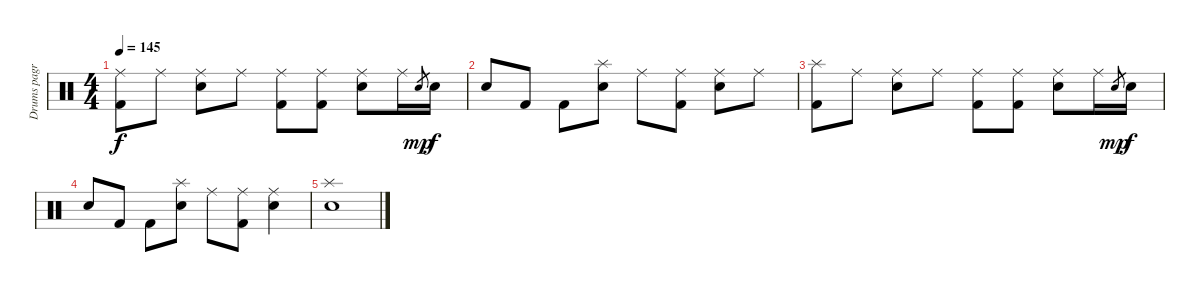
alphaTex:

\track ("Drums pagr" "Drums pagr") {instrument percussion}
\staff {score}
\articulation defaults
\ts (4 4)
\tempo 145
\clef neutral
\ks c
("Ride (middle)" "Kick (hit) 2").8{dy f} "Ride (middle)".8 ("Ride (middle)" "Snare (hit) 2").8 "Ride (middle)".8 ("Ride (middle)" "Kick (hit) 2").8 ("Ride (middle)" "Kick (hit) 2").8 ("Ride (middle)" "Snare (hit) 2").8 "Ride (middle)".16 "Snare (hit) 2".8{gr dy mp} "Snare (hit) 2".16{dy f} |
"Snare (hit) 2".8 "Kick (hit) 2".8 "Kick (hit) 2".8 ("Splash (hit)" "Snare (hit) 2").8 "Ride (middle)".8 ("Ride (middle)" "Kick (hit) 2").8 ("Ride (middle)" "Snare (hit) 2").8 "Ride (middle)".8 |
("Splash (hit)" "Kick (hit) 2").8 "Ride (middle)".8 ("Ride (middle)" "Snare (hit) 2").8 "Ride (middle)".8 ("Ride (middle)" "Kick (hit) 2").8 ("Ride (middle)" "Kick (hit) 2").8 ("Ride (middle)" "Snare (hit) 2").8 "Ride (middle)".16 "Snare (hit) 2".8{gr dy mp} "Snare (hit) 2".16{dy f} |
"Snare (hit) 2".8 "Kick (hit) 2".8 "Kick (hit) 2".8 ("Splash (hit)" "Snare (hit) 2").8 "Ride (middle)".8 ("Ride (middle)" "Kick (hit) 2").8 ("Ride (middle)" "Snare (hit) 2").4 |
("Splash (hit)" "Snare (hit) 2").1
